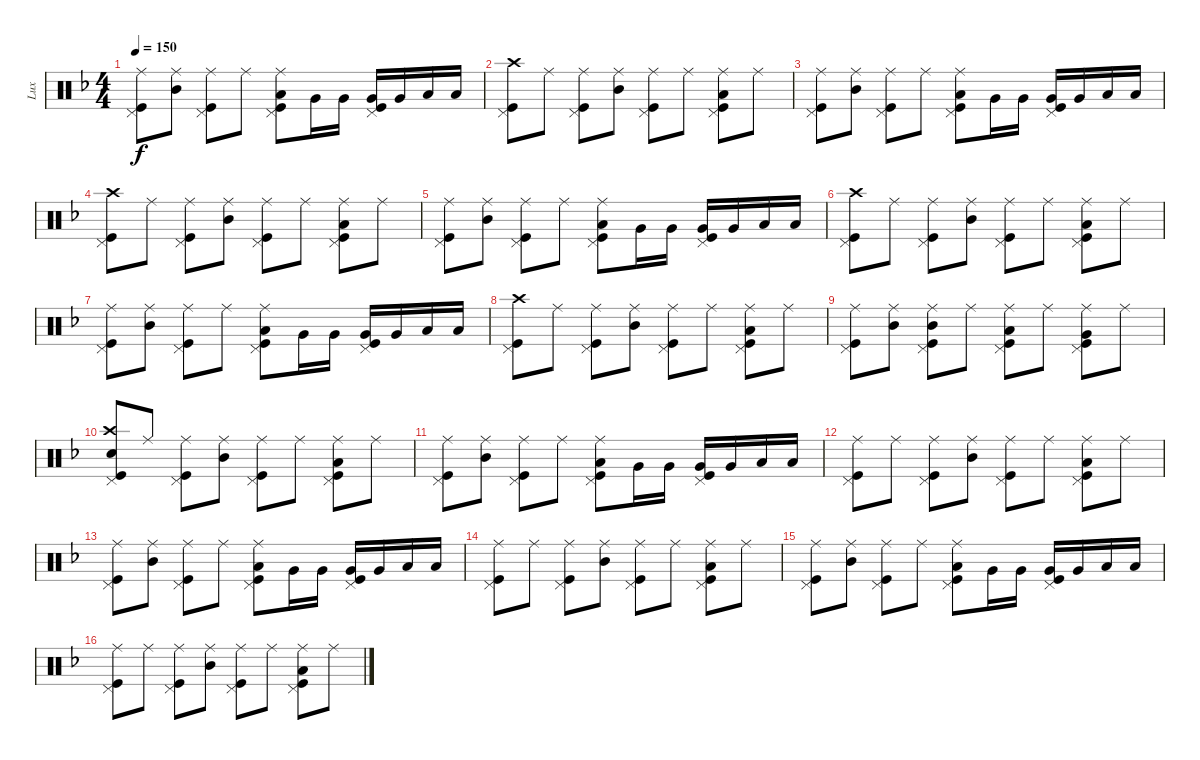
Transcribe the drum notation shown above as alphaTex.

\track ("Lux" "Lux") {instrument percussion}
\staff {score}
\articulation defaults
\ts (4 4)
\tempo 150
\clef neutral
\ks dminor
("Ride (middle)" "Pedal Hi-Hat (hit)" "Kick (hit)").8{dy f} ("Ride (middle)" "Mid Tom (hit)").8 ("Ride (middle)" "Pedal Hi-Hat (hit)" "Kick (hit)").8 "Ride (middle)".8 ("Ride (middle)" "Low Tom (hit)" "Pedal Hi-Hat (hit)" "Kick (hit)").8 "Very Low Tom (hit)".16 "Very Low Tom (hit)".16 ("Very Low Tom (hit)" "Pedal Hi-Hat (hit)" "Kick (hit)").16 "Very Low Tom (hit)".16 "Low Floor Tom (hit)".16 "Low Floor Tom (hit)".16 |
("Crash high (hit)" "Pedal Hi-Hat (hit)" "Kick (hit)").8 "Ride (middle)".8 ("Ride (middle)" "Pedal Hi-Hat (hit)" "Kick (hit)").8 ("Ride (middle)" "Mid Tom (hit)").8 ("Ride (middle)" "Pedal Hi-Hat (hit)" "Kick (hit)").8 "Ride (middle)".8 ("Ride (middle)" "Low Tom (hit)" "Pedal Hi-Hat (hit)" "Kick (hit)").8 "Ride (middle)".8 |
("Ride (middle)" "Pedal Hi-Hat (hit)" "Kick (hit)").8 ("Ride (middle)" "Mid Tom (hit)").8 ("Ride (middle)" "Pedal Hi-Hat (hit)" "Kick (hit)").8 "Ride (middle)".8 ("Ride (middle)" "Low Tom (hit)" "Pedal Hi-Hat (hit)" "Kick (hit)").8 "Very Low Tom (hit)".16 "Very Low Tom (hit)".16 ("Very Low Tom (hit)" "Pedal Hi-Hat (hit)" "Kick (hit)").16 "Very Low Tom (hit)".16 "Low Floor Tom (hit)".16 "Low Floor Tom (hit)".16 |
("Crash high (hit)" "Pedal Hi-Hat (hit)" "Kick (hit)").8 "Ride (middle)".8 ("Ride (middle)" "Pedal Hi-Hat (hit)" "Kick (hit)").8 ("Ride (middle)" "Mid Tom (hit)").8 ("Ride (middle)" "Pedal Hi-Hat (hit)" "Kick (hit)").8 "Ride (middle)".8 ("Ride (middle)" "Low Tom (hit)" "Pedal Hi-Hat (hit)" "Kick (hit)").8 "Ride (middle)".8 |
("Ride (middle)" "Pedal Hi-Hat (hit)" "Kick (hit)").8 ("Ride (middle)" "Mid Tom (hit)").8 ("Ride (middle)" "Pedal Hi-Hat (hit)" "Kick (hit)").8 "Ride (middle)".8 ("Ride (middle)" "Low Tom (hit)" "Pedal Hi-Hat (hit)" "Kick (hit)").8 "Very Low Tom (hit)".16 "Very Low Tom (hit)".16 ("Very Low Tom (hit)" "Pedal Hi-Hat (hit)" "Kick (hit)").16 "Very Low Tom (hit)".16 "Low Floor Tom (hit)".16 "Low Floor Tom (hit)".16 |
("Crash high (hit)" "Pedal Hi-Hat (hit)" "Kick (hit)").8 "Ride (middle)".8 ("Ride (middle)" "Pedal Hi-Hat (hit)" "Kick (hit)").8 ("Ride (middle)" "Mid Tom (hit)").8 ("Ride (middle)" "Pedal Hi-Hat (hit)" "Kick (hit)").8 "Ride (middle)".8 ("Ride (middle)" "Low Tom (hit)" "Pedal Hi-Hat (hit)" "Kick (hit)").8 "Ride (middle)".8 |
("Ride (middle)" "Pedal Hi-Hat (hit)" "Kick (hit)").8 ("Ride (middle)" "Mid Tom (hit)").8 ("Ride (middle)" "Pedal Hi-Hat (hit)" "Kick (hit)").8 "Ride (middle)".8 ("Ride (middle)" "Low Tom (hit)" "Pedal Hi-Hat (hit)" "Kick (hit)").8 "Very Low Tom (hit)".16 "Very Low Tom (hit)".16 ("Very Low Tom (hit)" "Pedal Hi-Hat (hit)" "Kick (hit)").16 "Very Low Tom (hit)".16 "Low Floor Tom (hit)".16 "Low Floor Tom (hit)".16 |
("Crash high (hit)" "Pedal Hi-Hat (hit)" "Kick (hit)").8 "Ride (middle)".8 ("Ride (middle)" "Pedal Hi-Hat (hit)" "Kick (hit)").8 ("Ride (middle)" "Mid Tom (hit)").8 ("Ride (middle)" "Pedal Hi-Hat (hit)" "Kick (hit)").8 "Ride (middle)".8 ("Ride (middle)" "Low Tom (hit)" "Pedal Hi-Hat (hit)" "Kick (hit)").8 "Ride (middle)".8 |
("Ride (middle)" "Pedal Hi-Hat (hit)" "Kick (hit)").8 ("Ride (middle)" "Mid Tom (hit)").8 ("Ride (middle)" "Mid Tom (hit)" "Pedal Hi-Hat (hit)" "Kick (hit)").8 "Ride (middle)".8 ("Ride (middle)" "Low Tom (hit)" "Pedal Hi-Hat (hit)" "Kick (hit)").8 "Ride (middle)".8 ("Ride (middle)" "Very Low Tom (hit)" "Pedal Hi-Hat (hit)" "Kick (hit)").8 "Ride (middle)".8 |
("Crash high (hit)" "Snare (hit) 2" "Pedal Hi-Hat (hit)" "Kick (hit)").8 "Ride (middle)".8 ("Ride (middle)" "Pedal Hi-Hat (hit)" "Kick (hit)").8 ("Ride (middle)" "Mid Tom (hit)").8 ("Ride (middle)" "Pedal Hi-Hat (hit)" "Kick (hit)").8 "Ride (middle)".8 ("Ride (middle)" "Low Tom (hit)" "Pedal Hi-Hat (hit)" "Kick (hit)").8 "Ride (middle)".8 |
("Ride (middle)" "Pedal Hi-Hat (hit)" "Kick (hit)").8 ("Ride (middle)" "Mid Tom (hit)").8 ("Ride (middle)" "Pedal Hi-Hat (hit)" "Kick (hit)").8 "Ride (middle)".8 ("Ride (middle)" "Low Tom (hit)" "Pedal Hi-Hat (hit)" "Kick (hit)").8 "Very Low Tom (hit)".16 "Very Low Tom (hit)".16 ("Very Low Tom (hit)" "Pedal Hi-Hat (hit)" "Kick (hit)").16 "Very Low Tom (hit)".16 "Low Floor Tom (hit)".16 "Low Floor Tom (hit)".16 |
("Ride (middle)" "Pedal Hi-Hat (hit)" "Kick (hit)").8 "Ride (middle)".8 ("Ride (middle)" "Pedal Hi-Hat (hit)" "Kick (hit)").8 ("Ride (middle)" "Mid Tom (hit)").8 ("Ride (middle)" "Pedal Hi-Hat (hit)" "Kick (hit)").8 "Ride (middle)".8 ("Ride (middle)" "Low Tom (hit)" "Pedal Hi-Hat (hit)" "Kick (hit)").8 "Ride (middle)".8 |
("Ride (middle)" "Pedal Hi-Hat (hit)" "Kick (hit)").8 ("Ride (middle)" "Mid Tom (hit)").8 ("Ride (middle)" "Pedal Hi-Hat (hit)" "Kick (hit)").8 "Ride (middle)".8 ("Ride (middle)" "Low Tom (hit)" "Pedal Hi-Hat (hit)" "Kick (hit)").8 "Very Low Tom (hit)".16 "Very Low Tom (hit)".16 ("Very Low Tom (hit)" "Pedal Hi-Hat (hit)" "Kick (hit)").16 "Very Low Tom (hit)".16 "Low Floor Tom (hit)".16 "Low Floor Tom (hit)".16 |
("Ride (middle)" "Pedal Hi-Hat (hit)" "Kick (hit)").8 "Ride (middle)".8 ("Ride (middle)" "Pedal Hi-Hat (hit)" "Kick (hit)").8 ("Ride (middle)" "Mid Tom (hit)").8 ("Ride (middle)" "Pedal Hi-Hat (hit)" "Kick (hit)").8 "Ride (middle)".8 ("Ride (middle)" "Low Tom (hit)" "Pedal Hi-Hat (hit)" "Kick (hit)").8 "Ride (middle)".8 |
("Ride (middle)" "Pedal Hi-Hat (hit)" "Kick (hit)").8 ("Ride (middle)" "Mid Tom (hit)").8 ("Ride (middle)" "Pedal Hi-Hat (hit)" "Kick (hit)").8 "Ride (middle)".8 ("Ride (middle)" "Low Tom (hit)" "Pedal Hi-Hat (hit)" "Kick (hit)").8 "Very Low Tom (hit)".16 "Very Low Tom (hit)".16 ("Very Low Tom (hit)" "Pedal Hi-Hat (hit)" "Kick (hit)").16 "Very Low Tom (hit)".16 "Low Floor Tom (hit)".16 "Low Floor Tom (hit)".16 |
("Ride (middle)" "Pedal Hi-Hat (hit)" "Kick (hit)").8 "Ride (middle)".8 ("Ride (middle)" "Pedal Hi-Hat (hit)" "Kick (hit)").8 ("Ride (middle)" "Mid Tom (hit)").8 ("Ride (middle)" "Pedal Hi-Hat (hit)" "Kick (hit)").8 "Ride (middle)".8 ("Ride (middle)" "Low Tom (hit)" "Pedal Hi-Hat (hit)" "Kick (hit)").8 "Ride (middle)".8
